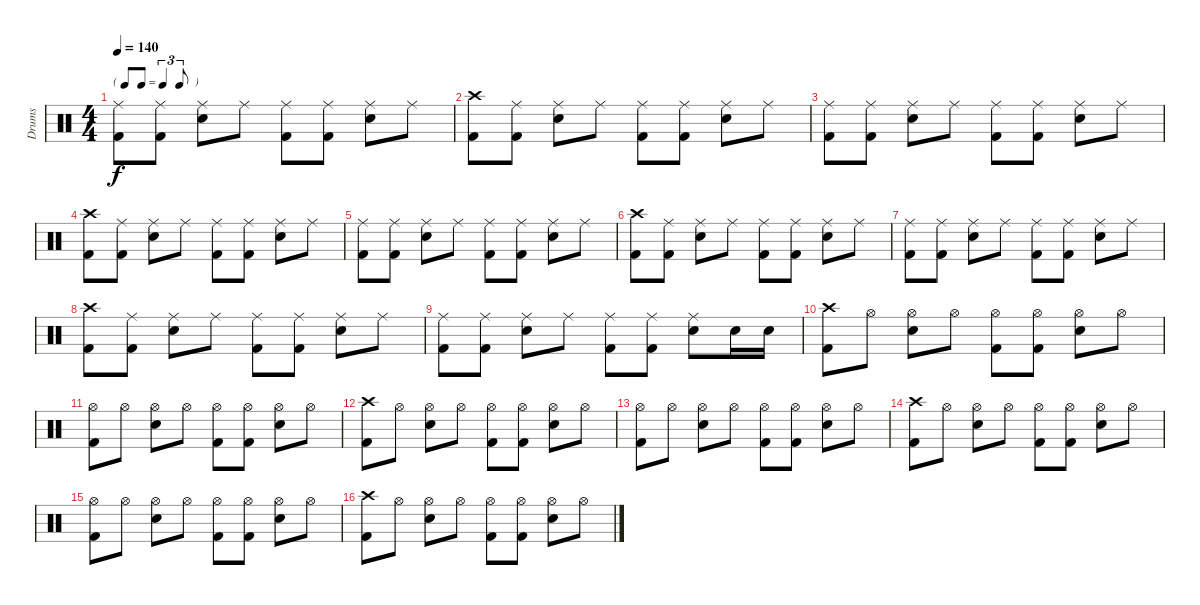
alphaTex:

\track ("Drums" "Drums") {instrument percussion}
\staff {score}
\articulation defaults
\ts (4 4)
\tf triplet8th
\tempo 140
\clef neutral
\ks c
("Ride (middle)" "Kick (hit) 2").8{dy f} ("Ride (middle)" "Kick (hit) 2").8 ("Ride (middle)" "Electric Snare (hit)").8 "Ride (middle)".8 ("Ride (middle)" "Kick (hit) 2").8 ("Ride (middle)" "Kick (hit) 2").8 ("Ride (middle)" "Electric Snare (hit)").8 "Ride (middle)".8 |
("Crash high (hit)" "Kick (hit) 2").8 ("Ride (middle)" "Kick (hit) 2").8 ("Ride (middle)" "Electric Snare (hit)").8 "Ride (middle)".8 ("Ride (middle)" "Kick (hit) 2").8 ("Ride (middle)" "Kick (hit) 2").8 ("Ride (middle)" "Electric Snare (hit)").8 "Ride (middle)".8 |
("Ride (middle)" "Kick (hit) 2").8 ("Ride (middle)" "Kick (hit) 2").8 ("Ride (middle)" "Electric Snare (hit)").8 "Ride (middle)".8 ("Ride (middle)" "Kick (hit) 2").8 ("Ride (middle)" "Kick (hit) 2").8 ("Ride (middle)" "Electric Snare (hit)").8 "Ride (middle)".8 |
("Crash high (hit)" "Kick (hit) 2").8 ("Ride (middle)" "Kick (hit) 2").8 ("Ride (middle)" "Electric Snare (hit)").8 "Ride (middle)".8 ("Ride (middle)" "Kick (hit) 2").8 ("Ride (middle)" "Kick (hit) 2").8 ("Ride (middle)" "Electric Snare (hit)").8 "Ride (middle)".8 |
("Ride (middle)" "Kick (hit) 2").8 ("Ride (middle)" "Kick (hit) 2").8 ("Ride (middle)" "Electric Snare (hit)").8 "Ride (middle)".8 ("Ride (middle)" "Kick (hit) 2").8 ("Ride (middle)" "Kick (hit) 2").8 ("Ride (middle)" "Electric Snare (hit)").8 "Ride (middle)".8 |
("Crash high (hit)" "Kick (hit) 2").8 ("Ride (middle)" "Kick (hit) 2").8 ("Ride (middle)" "Electric Snare (hit)").8 "Ride (middle)".8 ("Ride (middle)" "Kick (hit) 2").8 ("Ride (middle)" "Kick (hit) 2").8 ("Ride (middle)" "Electric Snare (hit)").8 "Ride (middle)".8 |
("Ride (middle)" "Kick (hit) 2").8 ("Ride (middle)" "Kick (hit) 2").8 ("Ride (middle)" "Electric Snare (hit)").8 "Ride (middle)".8 ("Ride (middle)" "Kick (hit) 2").8 ("Ride (middle)" "Kick (hit) 2").8 ("Ride (middle)" "Electric Snare (hit)").8 "Ride (middle)".8 |
("Crash high (hit)" "Kick (hit) 2").8 ("Ride (middle)" "Kick (hit) 2").8 ("Ride (middle)" "Electric Snare (hit)").8 "Ride (middle)".8 ("Ride (middle)" "Kick (hit) 2").8 ("Ride (middle)" "Kick (hit) 2").8 ("Ride (middle)" "Electric Snare (hit)").8 "Ride (middle)".8 |
("Ride (middle)" "Kick (hit) 2").8 ("Ride (middle)" "Kick (hit) 2").8 ("Ride (middle)" "Electric Snare (hit)").8 "Ride (middle)".8 ("Ride (middle)" "Kick (hit) 2").8 ("Ride (middle)" "Kick (hit) 2").8 ("Ride (middle)" "Electric Snare (hit)").8 "Electric Snare (hit)".16 "Electric Snare (hit)".16 |
("Crash high (hit)" "Kick (hit) 2").8 "Hi-Hat (open)".8 ("Hi-Hat (open)" "Electric Snare (hit)").8 "Hi-Hat (open)".8 ("Hi-Hat (open)" "Kick (hit) 2").8 ("Hi-Hat (open)" "Kick (hit) 2").8 ("Hi-Hat (open)" "Electric Snare (hit)").8 "Hi-Hat (open)".8 |
("Hi-Hat (open)" "Kick (hit) 2").8 "Hi-Hat (open)".8 ("Hi-Hat (open)" "Electric Snare (hit)").8 "Hi-Hat (open)".8 ("Hi-Hat (open)" "Kick (hit) 2").8 ("Hi-Hat (open)" "Kick (hit) 2").8 ("Hi-Hat (open)" "Electric Snare (hit)").8 "Hi-Hat (open)".8 |
("Crash high (hit)" "Kick (hit) 2").8 "Hi-Hat (open)".8 ("Hi-Hat (open)" "Electric Snare (hit)").8 "Hi-Hat (open)".8 ("Hi-Hat (open)" "Kick (hit) 2").8 ("Hi-Hat (open)" "Kick (hit) 2").8 ("Hi-Hat (open)" "Electric Snare (hit)").8 "Hi-Hat (open)".8 |
("Hi-Hat (open)" "Kick (hit) 2").8 "Hi-Hat (open)".8 ("Hi-Hat (open)" "Electric Snare (hit)").8 "Hi-Hat (open)".8 ("Hi-Hat (open)" "Kick (hit) 2").8 ("Hi-Hat (open)" "Kick (hit) 2").8 ("Hi-Hat (open)" "Electric Snare (hit)").8 "Hi-Hat (open)".8 |
("Crash high (hit)" "Kick (hit) 2").8 "Hi-Hat (open)".8 ("Hi-Hat (open)" "Electric Snare (hit)").8 "Hi-Hat (open)".8 ("Hi-Hat (open)" "Kick (hit) 2").8 ("Hi-Hat (open)" "Kick (hit) 2").8 ("Hi-Hat (open)" "Electric Snare (hit)").8 "Hi-Hat (open)".8 |
("Hi-Hat (open)" "Kick (hit) 2").8 "Hi-Hat (open)".8 ("Hi-Hat (open)" "Electric Snare (hit)").8 "Hi-Hat (open)".8 ("Hi-Hat (open)" "Kick (hit) 2").8 ("Hi-Hat (open)" "Kick (hit) 2").8 ("Hi-Hat (open)" "Electric Snare (hit)").8 "Hi-Hat (open)".8 |
("Crash high (hit)" "Kick (hit) 2").8 "Hi-Hat (open)".8 ("Hi-Hat (open)" "Electric Snare (hit)").8 "Hi-Hat (open)".8 ("Hi-Hat (open)" "Kick (hit) 2").8 ("Hi-Hat (open)" "Kick (hit) 2").8 ("Hi-Hat (open)" "Electric Snare (hit)").8 "Hi-Hat (open)".8
